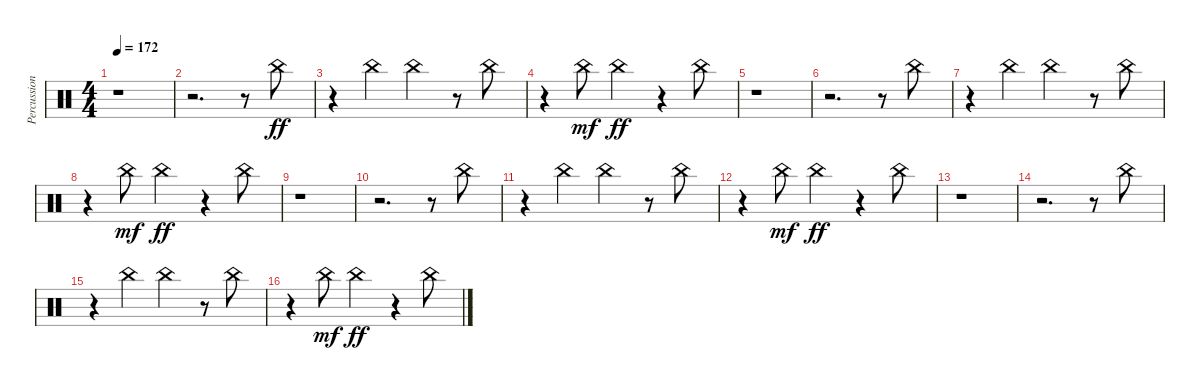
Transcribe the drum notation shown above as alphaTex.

\track ("Percussion / Drum Fills" "Percussion") {instrument percussion}
\staff {score}
\articulation defaults
\ts (4 4)
\tempo 172
\clef neutral
\ks c
r.1{dy f} |
r.2{d} r.8 "China (hit)".8{dy ff} |
r.4 "China (hit)".4 "China (hit)".4 r.8 "China (hit)".8 |
r.4 "China (hit)".8{dy mf} "China (hit)".4{dy ff} r.4 "China (hit)".8 |
r.1 |
r.2{d} r.8 "China (hit)".8 |
r.4 "China (hit)".4 "China (hit)".4 r.8 "China (hit)".8 |
r.4 "China (hit)".8{dy mf} "China (hit)".4{dy ff} r.4 "China (hit)".8 |
r.1 |
r.2{d} r.8 "China (hit)".8 |
r.4 "China (hit)".4 "China (hit)".4 r.8 "China (hit)".8 |
r.4 "China (hit)".8{dy mf} "China (hit)".4{dy ff} r.4 "China (hit)".8 |
r.1 |
r.2{d} r.8 "China (hit)".8 |
r.4 "China (hit)".4 "China (hit)".4 r.8 "China (hit)".8 |
r.4 "China (hit)".8{dy mf} "China (hit)".4{dy ff} r.4 "China (hit)".8
